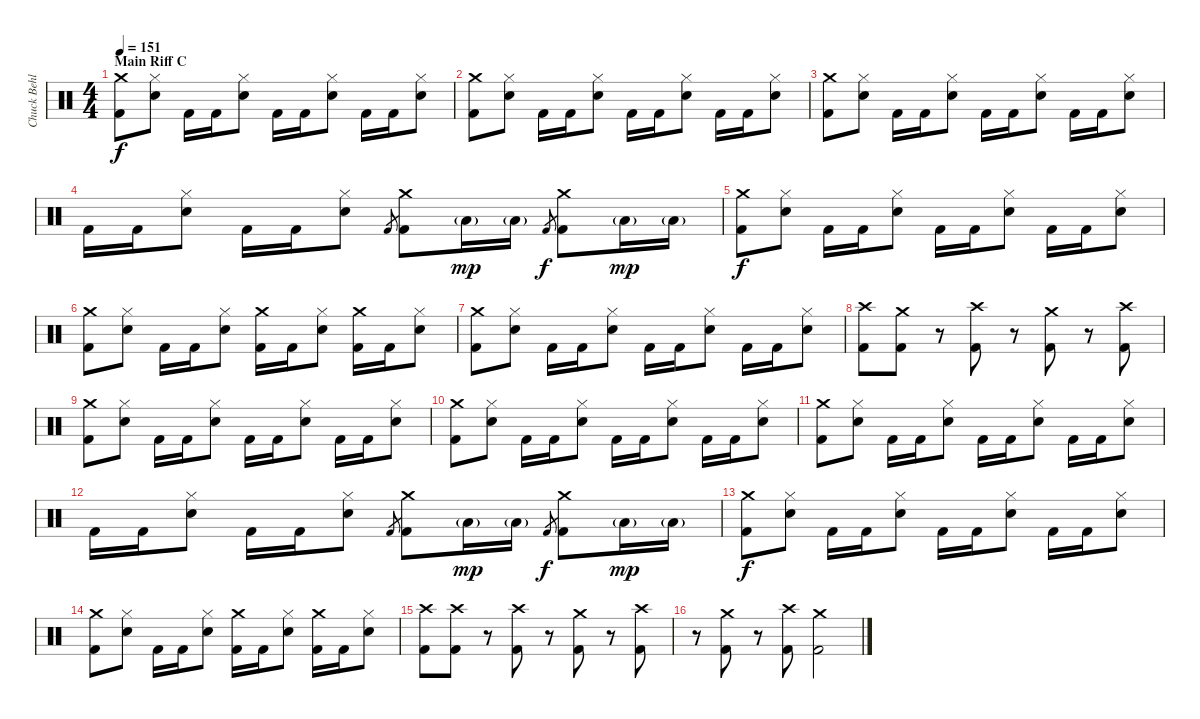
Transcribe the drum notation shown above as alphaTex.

\track ("Chuck Behler" "Chuck Behl") {instrument percussion}
\staff {score}
\articulation defaults
\ts (4 4)
\section ("" "Main Riff C")
\tempo 151
\clef neutral
\ks c
("Crash medium (hit)" "Kick (hit) 2").8{dy f} ("Hi-Hat (closed)" "Electric Snare (hit)").8 "Kick (hit) 2".16 "Kick (hit) 2".16 ("Hi-Hat (closed)" "Electric Snare (hit)").8 "Kick (hit) 2".16 "Kick (hit) 2".16 ("Hi-Hat (closed)" "Electric Snare (hit)").8 "Kick (hit) 2".16 "Kick (hit) 2".16 ("Hi-Hat (closed)" "Electric Snare (hit)").8 |
("Crash medium (hit)" "Kick (hit) 2").8 ("Hi-Hat (closed)" "Electric Snare (hit)").8 "Kick (hit) 2".16 "Kick (hit) 2".16 ("Hi-Hat (closed)" "Electric Snare (hit)").8 "Kick (hit) 2".16 "Kick (hit) 2".16 ("Hi-Hat (closed)" "Electric Snare (hit)").8 "Kick (hit) 2".16 "Kick (hit) 2".16 ("Hi-Hat (closed)" "Electric Snare (hit)").8 |
("Crash medium (hit)" "Kick (hit) 2").8 ("Hi-Hat (closed)" "Electric Snare (hit)").8 "Kick (hit) 2".16 "Kick (hit) 2".16 ("Hi-Hat (closed)" "Electric Snare (hit)").8 "Kick (hit) 2".16 "Kick (hit) 2".16 ("Hi-Hat (closed)" "Electric Snare (hit)").8 "Kick (hit) 2".16 "Kick (hit) 2".16 ("Hi-Hat (closed)" "Electric Snare (hit)").8 |
"Kick (hit) 2".16 "Kick (hit) 2".16 ("Hi-Hat (closed)" "Electric Snare (hit)").8 "Kick (hit) 2".16 "Kick (hit) 2".16 ("Hi-Hat (closed)" "Electric Snare (hit)").8 "Kick (hit) 2".8{gr} ("Crash medium (hit)" "Kick (hit) 2").8 "Low Tom (hit)"{g}.16{dy mp} "Low Tom (hit)"{g}.16 "Kick (hit) 2".8{gr dy f} ("Crash medium (hit)" "Kick (hit) 2").8 "Low Tom (hit)"{g}.16{dy mp} "Low Tom (hit)"{g}.16 |
("Crash medium (hit)" "Kick (hit) 2").8{dy f} ("Hi-Hat (closed)" "Electric Snare (hit)").8 "Kick (hit) 2".16 "Kick (hit) 2".16 ("Hi-Hat (closed)" "Electric Snare (hit)").8 "Kick (hit) 2".16 "Kick (hit) 2".16 ("Hi-Hat (closed)" "Electric Snare (hit)").8 "Kick (hit) 2".16 "Kick (hit) 2".16 ("Hi-Hat (closed)" "Electric Snare (hit)").8 |
("Crash medium (hit)" "Kick (hit) 2").8 ("Hi-Hat (closed)" "Electric Snare (hit)").8 "Kick (hit) 2".16 "Kick (hit) 2".16 ("Hi-Hat (closed)" "Electric Snare (hit)").8 ("Crash medium (hit)" "Kick (hit) 2").16 "Kick (hit) 2".16 ("Hi-Hat (closed)" "Electric Snare (hit)").8 ("Crash medium (hit)" "Kick (hit) 2").16 "Kick (hit) 2".16 ("Hi-Hat (closed)" "Electric Snare (hit)").8 |
("Crash medium (hit)" "Kick (hit) 2").8 ("Hi-Hat (closed)" "Electric Snare (hit)").8 "Kick (hit) 2".16 "Kick (hit) 2".16 ("Hi-Hat (closed)" "Electric Snare (hit)").8 "Kick (hit) 2".16 "Kick (hit) 2".16 ("Hi-Hat (closed)" "Electric Snare (hit)").8 "Kick (hit) 2".16 "Kick (hit) 2".16 ("Hi-Hat (closed)" "Electric Snare (hit)").8 |
("Crash high (hit)" "Kick (hit) 2").8 ("Crash medium (hit)" "Kick (hit) 2").8 r.8 ("Crash high (hit)" "Kick (hit) 2").8 r.8 ("Crash medium (hit)" "Kick (hit) 2").8 r.8 ("Crash high (hit)" "Kick (hit) 2").8 |
("Crash medium (hit)" "Kick (hit) 2").8 ("Hi-Hat (closed)" "Electric Snare (hit)").8 "Kick (hit) 2".16 "Kick (hit) 2".16 ("Hi-Hat (closed)" "Electric Snare (hit)").8 "Kick (hit) 2".16 "Kick (hit) 2".16 ("Hi-Hat (closed)" "Electric Snare (hit)").8 "Kick (hit) 2".16 "Kick (hit) 2".16 ("Hi-Hat (closed)" "Electric Snare (hit)").8 |
("Crash medium (hit)" "Kick (hit) 2").8 ("Hi-Hat (closed)" "Electric Snare (hit)").8 "Kick (hit) 2".16 "Kick (hit) 2".16 ("Hi-Hat (closed)" "Electric Snare (hit)").8 "Kick (hit) 2".16 "Kick (hit) 2".16 ("Hi-Hat (closed)" "Electric Snare (hit)").8 "Kick (hit) 2".16 "Kick (hit) 2".16 ("Hi-Hat (closed)" "Electric Snare (hit)").8 |
("Crash medium (hit)" "Kick (hit) 2").8 ("Hi-Hat (closed)" "Electric Snare (hit)").8 "Kick (hit) 2".16 "Kick (hit) 2".16 ("Hi-Hat (closed)" "Electric Snare (hit)").8 "Kick (hit) 2".16 "Kick (hit) 2".16 ("Hi-Hat (closed)" "Electric Snare (hit)").8 "Kick (hit) 2".16 "Kick (hit) 2".16 ("Hi-Hat (closed)" "Electric Snare (hit)").8 |
"Kick (hit) 2".16 "Kick (hit) 2".16 ("Hi-Hat (closed)" "Electric Snare (hit)").8 "Kick (hit) 2".16 "Kick (hit) 2".16 ("Hi-Hat (closed)" "Electric Snare (hit)").8 "Kick (hit) 2".8{gr} ("Crash medium (hit)" "Kick (hit) 2").8 "Low Tom (hit)"{g}.16{dy mp} "Low Tom (hit)"{g}.16 "Kick (hit) 2".8{gr dy f} ("Crash medium (hit)" "Kick (hit) 2").8 "Low Tom (hit)"{g}.16{dy mp} "Low Tom (hit)"{g}.16 |
("Crash medium (hit)" "Kick (hit) 2").8{dy f} ("Hi-Hat (closed)" "Electric Snare (hit)").8 "Kick (hit) 2".16 "Kick (hit) 2".16 ("Hi-Hat (closed)" "Electric Snare (hit)").8 "Kick (hit) 2".16 "Kick (hit) 2".16 ("Hi-Hat (closed)" "Electric Snare (hit)").8 "Kick (hit) 2".16 "Kick (hit) 2".16 ("Hi-Hat (closed)" "Electric Snare (hit)").8 |
("Crash medium (hit)" "Kick (hit) 2").8 ("Hi-Hat (closed)" "Electric Snare (hit)").8 "Kick (hit) 2".16 "Kick (hit) 2".16 ("Hi-Hat (closed)" "Electric Snare (hit)").8 ("Crash medium (hit)" "Kick (hit) 2").16 "Kick (hit) 2".16 ("Hi-Hat (closed)" "Electric Snare (hit)").8 ("Crash medium (hit)" "Kick (hit) 2").16 "Kick (hit) 2".16 ("Hi-Hat (closed)" "Electric Snare (hit)").8 |
("Crash high (hit)" "Kick (hit) 2").8 ("Crash high (hit)" "Kick (hit) 2").8 r.8 ("Crash high (hit)" "Kick (hit) 2").8 r.8 ("Crash medium (hit)" "Kick (hit) 2").8 r.8 ("Crash high (hit)" "Kick (hit) 2").8 |
r.8 ("Crash medium (hit)" "Kick (hit) 2").8 r.8 ("Crash high (hit)" "Kick (hit) 2").8 ("Crash medium (hit)" "Kick (hit) 2").2
